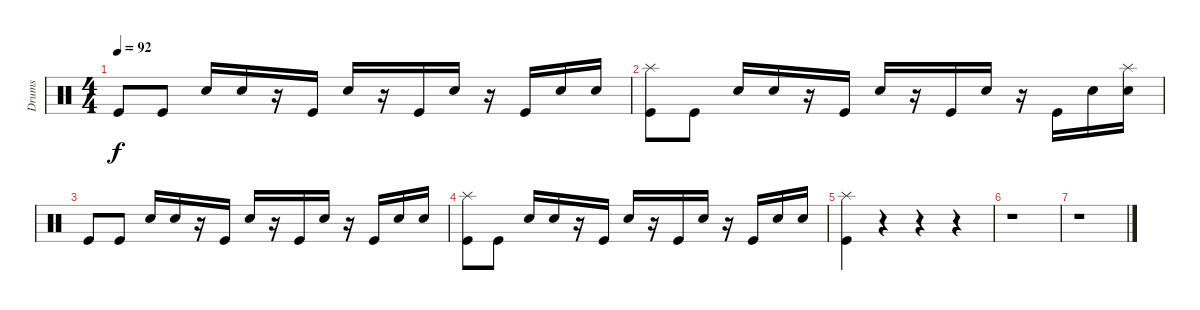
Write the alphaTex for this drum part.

\track ("Drums" "Drums") {instrument percussion}
\staff {score}
\articulation defaults
\ts (4 4)
\tempo 92
\clef neutral
\ks c "Kick (hit)".8{dy f} "Kick (hit)".8 "Snare (hit) 2".16 "Snare (hit) 2".16
r.16 "Kick (hit)".16 "Snare (hit) 2".16 r.16 "Kick (hit)".16 "Snare (hit) 2".16 r.16 "Kick (hit)".16 "Snare (hit) 2".16 "Snare (hit) 2".16 |
("Splash (hit)" "Kick (hit)").8 "Kick (hit)".8 "Snare (hit) 2".16 "Snare (hit) 2".16 r.16 "Kick (hit)".16 "Snare (hit) 2".16 r.16 "Kick (hit)".16 "Snare (hit) 2".16 r.16 "Kick (hit)".16 "Snare (hit) 2".16 ("Splash (hit)" "Snare (hit) 2").16 |
"Kick (hit)".8 "Kick (hit)".8 "Snare (hit) 2".16 "Snare (hit) 2".16 r.16 "Kick (hit)".16 "Snare (hit) 2".16 r.16 "Kick (hit)".16 "Snare (hit) 2".16 r.16 "Kick (hit)".16 "Snare (hit) 2".16 "Snare (hit) 2".16 |
("Splash (hit)" "Kick (hit)").8 "Kick (hit)".8 "Snare (hit) 2".16 "Snare (hit) 2".16 r.16 "Kick (hit)".16 "Snare (hit) 2".16 r.16 "Kick (hit)".16 "Snare (hit) 2".16 r.16 "Kick (hit)".16 "Snare (hit) 2".16 "Snare (hit) 2".16 |
("Splash (hit)" "Kick (hit)").4 r.4 r.4 r.4 |
r.1 |
r.1
